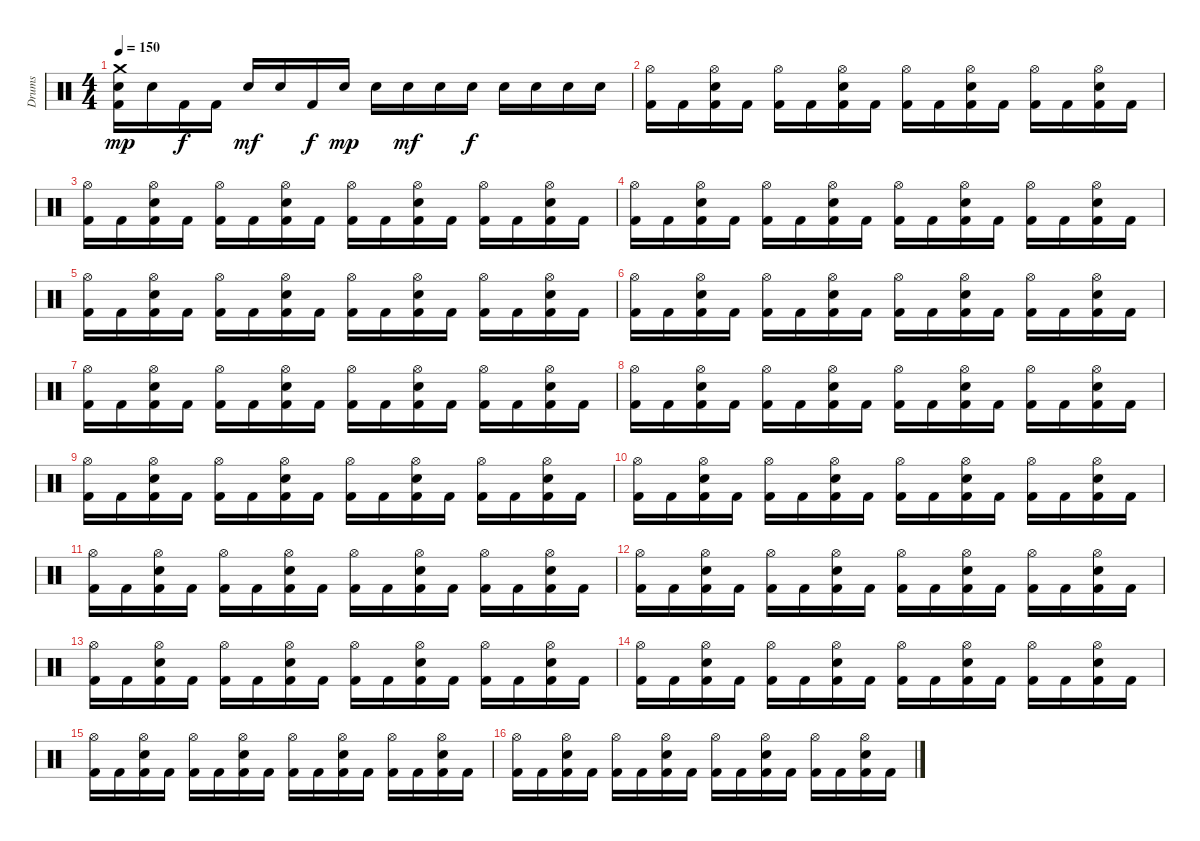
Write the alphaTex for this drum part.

\track ("Drums" "Drums") {instrument percussion}
\staff {score}
\articulation defaults
\ts (4 4)
\tempo 150
\clef neutral
\ks c
("Kick (hit) 2" "Snare (hit) 2" "Crash medium (hit)").16{dy mp} "Snare (hit) 2".16 "Kick (hit) 2".16{dy f} "Kick (hit) 2".16 "Snare (hit) 2".16{dy mf} "Snare (hit) 2".16 "Kick (hit) 2".16{dy f} "Snare (hit) 2".16{dy mp} "Snare (hit) 2".16 "Snare (hit) 2".16{dy mf} "Snare (hit) 2".16 "Snare (hit) 2".16{dy f} "Snare (hit) 2".16 "Snare (hit) 2".16 "Snare (hit) 2".16 "Snare (hit) 2".16 |
("Kick (hit) 2" "Hi-Hat (open)").16 "Kick (hit) 2".16 ("Kick (hit) 2" "Snare (hit) 2" "Hi-Hat (open)").16 "Kick (hit) 2".16 ("Kick (hit) 2" "Hi-Hat (open)").16 "Kick (hit) 2".16 ("Kick (hit) 2" "Snare (hit) 2" "Hi-Hat (open)").16 "Kick (hit) 2".16 ("Kick (hit) 2" "Hi-Hat (open)").16 "Kick (hit) 2".16 ("Kick (hit) 2" "Snare (hit) 2" "Hi-Hat (open)").16 "Kick (hit) 2".16 ("Kick (hit) 2" "Hi-Hat (open)").16 "Kick (hit) 2".16 ("Kick (hit) 2" "Snare (hit) 2" "Hi-Hat (open)").16 "Kick (hit) 2".16 |
("Kick (hit) 2" "Hi-Hat (open)").16 "Kick (hit) 2".16 ("Kick (hit) 2" "Snare (hit) 2" "Hi-Hat (open)").16 "Kick (hit) 2".16 ("Kick (hit) 2" "Hi-Hat (open)").16 "Kick (hit) 2".16 ("Kick (hit) 2" "Snare (hit) 2" "Hi-Hat (open)").16 "Kick (hit) 2".16 ("Kick (hit) 2" "Hi-Hat (open)").16 "Kick (hit) 2".16 ("Kick (hit) 2" "Snare (hit) 2" "Hi-Hat (open)").16 "Kick (hit) 2".16 ("Kick (hit) 2" "Hi-Hat (open)").16 "Kick (hit) 2".16 ("Kick (hit) 2" "Snare (hit) 2" "Hi-Hat (open)").16 "Kick (hit) 2".16 |
("Kick (hit) 2" "Hi-Hat (open)").16 "Kick (hit) 2".16 ("Kick (hit) 2" "Snare (hit) 2" "Hi-Hat (open)").16 "Kick (hit) 2".16 ("Kick (hit) 2" "Hi-Hat (open)").16 "Kick (hit) 2".16 ("Kick (hit) 2" "Snare (hit) 2" "Hi-Hat (open)").16 "Kick (hit) 2".16 ("Kick (hit) 2" "Hi-Hat (open)").16 "Kick (hit) 2".16 ("Kick (hit) 2" "Snare (hit) 2" "Hi-Hat (open)").16 "Kick (hit) 2".16 ("Kick (hit) 2" "Hi-Hat (open)").16 "Kick (hit) 2".16 ("Kick (hit) 2" "Snare (hit) 2" "Hi-Hat (open)").16 "Kick (hit) 2".16 |
("Kick (hit) 2" "Hi-Hat (open)").16 "Kick (hit) 2".16 ("Kick (hit) 2" "Snare (hit) 2" "Hi-Hat (open)").16 "Kick (hit) 2".16 ("Kick (hit) 2" "Hi-Hat (open)").16 "Kick (hit) 2".16 ("Kick (hit) 2" "Snare (hit) 2" "Hi-Hat (open)").16 "Kick (hit) 2".16 ("Kick (hit) 2" "Hi-Hat (open)").16 "Kick (hit) 2".16 ("Kick (hit) 2" "Snare (hit) 2" "Hi-Hat (open)").16 "Kick (hit) 2".16 ("Kick (hit) 2" "Hi-Hat (open)").16 "Kick (hit) 2".16 ("Kick (hit) 2" "Snare (hit) 2" "Hi-Hat (open)").16 "Kick (hit) 2".16 |
("Kick (hit) 2" "Hi-Hat (open)").16 "Kick (hit) 2".16 ("Kick (hit) 2" "Snare (hit) 2" "Hi-Hat (open)").16 "Kick (hit) 2".16 ("Kick (hit) 2" "Hi-Hat (open)").16 "Kick (hit) 2".16 ("Kick (hit) 2" "Snare (hit) 2" "Hi-Hat (open)").16 "Kick (hit) 2".16 ("Kick (hit) 2" "Hi-Hat (open)").16 "Kick (hit) 2".16 ("Kick (hit) 2" "Snare (hit) 2" "Hi-Hat (open)").16 "Kick (hit) 2".16 ("Kick (hit) 2" "Hi-Hat (open)").16 "Kick (hit) 2".16 ("Kick (hit) 2" "Snare (hit) 2" "Hi-Hat (open)").16 "Kick (hit) 2".16 |
("Kick (hit) 2" "Hi-Hat (open)").16 "Kick (hit) 2".16 ("Kick (hit) 2" "Snare (hit) 2" "Hi-Hat (open)").16 "Kick (hit) 2".16 ("Kick (hit) 2" "Hi-Hat (open)").16 "Kick (hit) 2".16 ("Kick (hit) 2" "Snare (hit) 2" "Hi-Hat (open)").16 "Kick (hit) 2".16 ("Kick (hit) 2" "Hi-Hat (open)").16 "Kick (hit) 2".16 ("Kick (hit) 2" "Snare (hit) 2" "Hi-Hat (open)").16 "Kick (hit) 2".16 ("Kick (hit) 2" "Hi-Hat (open)").16 "Kick (hit) 2".16 ("Kick (hit) 2" "Snare (hit) 2" "Hi-Hat (open)").16 "Kick (hit) 2".16 |
("Kick (hit) 2" "Hi-Hat (open)").16 "Kick (hit) 2".16 ("Kick (hit) 2" "Snare (hit) 2" "Hi-Hat (open)").16 "Kick (hit) 2".16 ("Kick (hit) 2" "Hi-Hat (open)").16 "Kick (hit) 2".16 ("Kick (hit) 2" "Snare (hit) 2" "Hi-Hat (open)").16 "Kick (hit) 2".16 ("Kick (hit) 2" "Hi-Hat (open)").16 "Kick (hit) 2".16 ("Kick (hit) 2" "Snare (hit) 2" "Hi-Hat (open)").16 "Kick (hit) 2".16 ("Kick (hit) 2" "Hi-Hat (open)").16 "Kick (hit) 2".16 ("Kick (hit) 2" "Snare (hit) 2" "Hi-Hat (open)").16 "Kick (hit) 2".16 |
("Kick (hit) 2" "Hi-Hat (open)").16 "Kick (hit) 2".16 ("Kick (hit) 2" "Snare (hit) 2" "Hi-Hat (open)").16 "Kick (hit) 2".16 ("Kick (hit) 2" "Hi-Hat (open)").16 "Kick (hit) 2".16 ("Kick (hit) 2" "Snare (hit) 2" "Hi-Hat (open)").16 "Kick (hit) 2".16 ("Kick (hit) 2" "Hi-Hat (open)").16 "Kick (hit) 2".16 ("Kick (hit) 2" "Snare (hit) 2" "Hi-Hat (open)").16 "Kick (hit) 2".16 ("Kick (hit) 2" "Hi-Hat (open)").16 "Kick (hit) 2".16 ("Kick (hit) 2" "Snare (hit) 2" "Hi-Hat (open)").16 "Kick (hit) 2".16 |
("Kick (hit) 2" "Hi-Hat (open)").16 "Kick (hit) 2".16 ("Kick (hit) 2" "Snare (hit) 2" "Hi-Hat (open)").16 "Kick (hit) 2".16 ("Kick (hit) 2" "Hi-Hat (open)").16 "Kick (hit) 2".16 ("Kick (hit) 2" "Snare (hit) 2" "Hi-Hat (open)").16 "Kick (hit) 2".16 ("Kick (hit) 2" "Hi-Hat (open)").16 "Kick (hit) 2".16 ("Kick (hit) 2" "Snare (hit) 2" "Hi-Hat (open)").16 "Kick (hit) 2".16 ("Kick (hit) 2" "Hi-Hat (open)").16 "Kick (hit) 2".16 ("Kick (hit) 2" "Snare (hit) 2" "Hi-Hat (open)").16 "Kick (hit) 2".16 |
("Kick (hit) 2" "Hi-Hat (open)").16 "Kick (hit) 2".16 ("Kick (hit) 2" "Snare (hit) 2" "Hi-Hat (open)").16 "Kick (hit) 2".16 ("Kick (hit) 2" "Hi-Hat (open)").16 "Kick (hit) 2".16 ("Kick (hit) 2" "Snare (hit) 2" "Hi-Hat (open)").16 "Kick (hit) 2".16 ("Kick (hit) 2" "Hi-Hat (open)").16 "Kick (hit) 2".16 ("Kick (hit) 2" "Snare (hit) 2" "Hi-Hat (open)").16 "Kick (hit) 2".16 ("Kick (hit) 2" "Hi-Hat (open)").16 "Kick (hit) 2".16 ("Kick (hit) 2" "Snare (hit) 2" "Hi-Hat (open)").16 "Kick (hit) 2".16 |
("Kick (hit) 2" "Hi-Hat (open)").16 "Kick (hit) 2".16 ("Kick (hit) 2" "Snare (hit) 2" "Hi-Hat (open)").16 "Kick (hit) 2".16 ("Kick (hit) 2" "Hi-Hat (open)").16 "Kick (hit) 2".16 ("Kick (hit) 2" "Snare (hit) 2" "Hi-Hat (open)").16 "Kick (hit) 2".16 ("Kick (hit) 2" "Hi-Hat (open)").16 "Kick (hit) 2".16 ("Kick (hit) 2" "Snare (hit) 2" "Hi-Hat (open)").16 "Kick (hit) 2".16 ("Kick (hit) 2" "Hi-Hat (open)").16 "Kick (hit) 2".16 ("Kick (hit) 2" "Snare (hit) 2" "Hi-Hat (open)").16 "Kick (hit) 2".16 |
("Kick (hit) 2" "Hi-Hat (open)").16 "Kick (hit) 2".16 ("Kick (hit) 2" "Snare (hit) 2" "Hi-Hat (open)").16 "Kick (hit) 2".16 ("Kick (hit) 2" "Hi-Hat (open)").16 "Kick (hit) 2".16 ("Kick (hit) 2" "Snare (hit) 2" "Hi-Hat (open)").16 "Kick (hit) 2".16 ("Kick (hit) 2" "Hi-Hat (open)").16 "Kick (hit) 2".16 ("Kick (hit) 2" "Snare (hit) 2" "Hi-Hat (open)").16 "Kick (hit) 2".16 ("Kick (hit) 2" "Hi-Hat (open)").16 "Kick (hit) 2".16 ("Kick (hit) 2" "Snare (hit) 2" "Hi-Hat (open)").16 "Kick (hit) 2".16 |
("Kick (hit) 2" "Hi-Hat (open)").16 "Kick (hit) 2".16 ("Kick (hit) 2" "Snare (hit) 2" "Hi-Hat (open)").16 "Kick (hit) 2".16 ("Kick (hit) 2" "Hi-Hat (open)").16 "Kick (hit) 2".16 ("Kick (hit) 2" "Snare (hit) 2" "Hi-Hat (open)").16 "Kick (hit) 2".16 ("Kick (hit) 2" "Hi-Hat (open)").16 "Kick (hit) 2".16 ("Kick (hit) 2" "Snare (hit) 2" "Hi-Hat (open)").16 "Kick (hit) 2".16 ("Kick (hit) 2" "Hi-Hat (open)").16 "Kick (hit) 2".16 ("Kick (hit) 2" "Snare (hit) 2" "Hi-Hat (open)").16 "Kick (hit) 2".16 |
("Kick (hit) 2" "Hi-Hat (open)").16 "Kick (hit) 2".16 ("Kick (hit) 2" "Snare (hit) 2" "Hi-Hat (open)").16 "Kick (hit) 2".16 ("Kick (hit) 2" "Hi-Hat (open)").16 "Kick (hit) 2".16 ("Kick (hit) 2" "Snare (hit) 2" "Hi-Hat (open)").16 "Kick (hit) 2".16 ("Kick (hit) 2" "Hi-Hat (open)").16 "Kick (hit) 2".16 ("Kick (hit) 2" "Snare (hit) 2" "Hi-Hat (open)").16 "Kick (hit) 2".16 ("Kick (hit) 2" "Hi-Hat (open)").16 "Kick (hit) 2".16 ("Kick (hit) 2" "Snare (hit) 2" "Hi-Hat (open)").16 "Kick (hit) 2".16 |
("Kick (hit) 2" "Hi-Hat (open)").16 "Kick (hit) 2".16 ("Kick (hit) 2" "Snare (hit) 2" "Hi-Hat (open)").16 "Kick (hit) 2".16 ("Kick (hit) 2" "Hi-Hat (open)").16 "Kick (hit) 2".16 ("Kick (hit) 2" "Snare (hit) 2" "Hi-Hat (open)").16 "Kick (hit) 2".16 ("Kick (hit) 2" "Hi-Hat (open)").16 "Kick (hit) 2".16 ("Kick (hit) 2" "Snare (hit) 2" "Hi-Hat (open)").16 "Kick (hit) 2".16 ("Kick (hit) 2" "Hi-Hat (open)").16 "Kick (hit) 2".16 ("Kick (hit) 2" "Snare (hit) 2" "Hi-Hat (open)").16 "Kick (hit) 2".16
